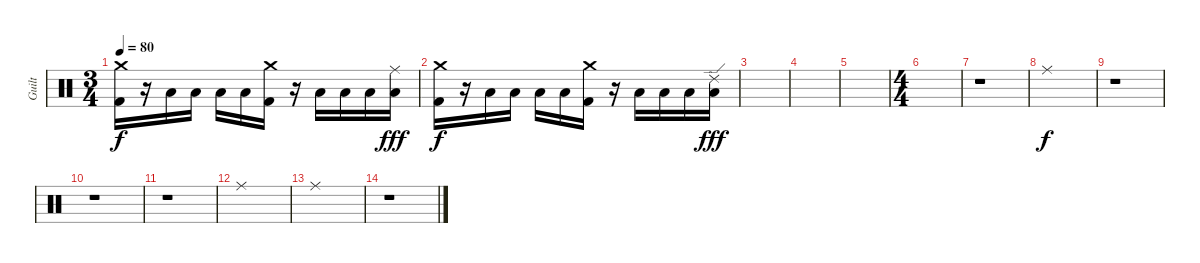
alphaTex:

\track ("Guilt" "Guilt") {instrument percussion}
\staff {score}
\articulation defaults
\ts (3 4)
\tempo 80
\clef neutral
\ks c
("Crash medium (hit)" "Kick (hit) 2").16{dy f volume 12} r.16 "Low Tom (hit)".16 "Low Tom (hit)".16 "Low Tom (hit)".16 "Low Tom (hit)".16 ("Crash medium (hit)" "Kick (hit) 2").16 r.16 "Low Tom (hit)".16 "Low Tom (hit)".16 "Low Tom (hit)".16 ("Ride (middle)" "Low Tom (hit)").16{dy fff} |
("Crash medium (hit)" "Kick (hit) 2").16{dy f volume 12} r.16 "Low Tom (hit)".16 "Low Tom (hit)".16 "Low Tom (hit)".16 "Low Tom (hit)".16 ("Crash medium (hit)" "Kick (hit) 2").16 r.16 "Low Tom (hit)".16 "Low Tom (hit)".16 "Low Tom (hit)".16 ("Ride (edge) 2" "Low Tom (hit)").16{dy fff} |
|
|
|
\ts (4 4)
|
r.1 |
"Ride (middle)".1{dy f} |
r.1 |
r.1 |
r.1 |
"Ride (middle)".1 |
"Ride (middle)".1 |
r.1
